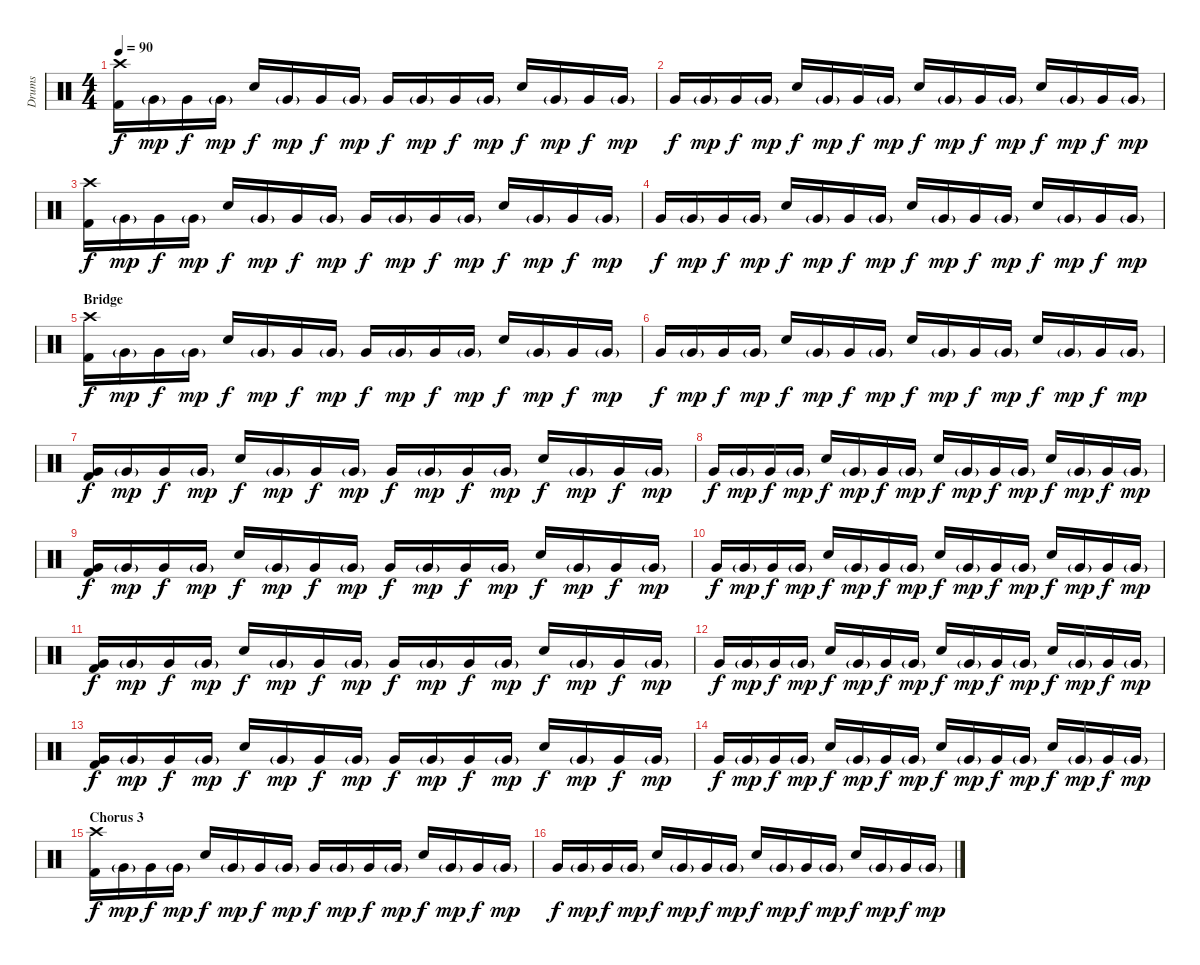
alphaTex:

\track ("Drums" "Drums") {instrument percussion}
\staff {score}
\articulation defaults
\ts (4 4)
\tempo 90
\clef neutral
\ks c
("Crash high (hit)" "Kick (hit) 2").16{dy f} "Very Low Tom (hit)"{g}.16{dy mp} "Very Low Tom (hit)".16{dy f} "Very Low Tom (hit)"{g}.16{dy mp} "Snare (hit) 2".16{dy f} "Very Low Tom (hit)"{g}.16{dy mp} "Very Low Tom (hit)".16{dy f} "Very Low Tom (hit)"{g}.16{dy mp} "Very Low Tom (hit)".16{dy f} "Very Low Tom (hit)"{g}.16{dy mp} "Very Low Tom (hit)".16{dy f} "Very Low Tom (hit)"{g}.16{dy mp} "Snare (hit) 2".16{dy f} "Very Low Tom (hit)"{g}.16{dy mp} "Very Low Tom (hit)".16{dy f} "Very Low Tom (hit)"{g}.16{dy mp} |
"Very Low Tom (hit)".16{dy f} "Very Low Tom (hit)"{g}.16{dy mp} "Very Low Tom (hit)".16{dy f} "Very Low Tom (hit)"{g}.16{dy mp} "Snare (hit) 2".16{dy f} "Very Low Tom (hit)"{g}.16{dy mp} "Very Low Tom (hit)".16{dy f} "Very Low Tom (hit)"{g}.16{dy mp} "Snare (hit) 2".16{dy f} "Very Low Tom (hit)"{g}.16{dy mp} "Very Low Tom (hit)".16{dy f} "Very Low Tom (hit)"{g}.16{dy mp} "Snare (hit) 2".16{dy f} "Very Low Tom (hit)"{g}.16{dy mp} "Very Low Tom (hit)".16{dy f} "Very Low Tom (hit)"{g}.16{dy mp} |
("Crash high (hit)" "Kick (hit) 2").16{dy f} "Very Low Tom (hit)"{g}.16{dy mp} "Very Low Tom (hit)".16{dy f} "Very Low Tom (hit)"{g}.16{dy mp} "Snare (hit) 2".16{dy f} "Very Low Tom (hit)"{g}.16{dy mp} "Very Low Tom (hit)".16{dy f} "Very Low Tom (hit)"{g}.16{dy mp} "Very Low Tom (hit)".16{dy f} "Very Low Tom (hit)"{g}.16{dy mp} "Very Low Tom (hit)".16{dy f} "Very Low Tom (hit)"{g}.16{dy mp} "Snare (hit) 2".16{dy f} "Very Low Tom (hit)"{g}.16{dy mp} "Very Low Tom (hit)".16{dy f} "Very Low Tom (hit)"{g}.16{dy mp} |
"Very Low Tom (hit)".16{dy f} "Very Low Tom (hit)"{g}.16{dy mp} "Very Low Tom (hit)".16{dy f} "Very Low Tom (hit)"{g}.16{dy mp} "Snare (hit) 2".16{dy f} "Very Low Tom (hit)"{g}.16{dy mp} "Very Low Tom (hit)".16{dy f} "Very Low Tom (hit)"{g}.16{dy mp} "Snare (hit) 2".16{dy f} "Very Low Tom (hit)"{g}.16{dy mp} "Very Low Tom (hit)".16{dy f} "Very Low Tom (hit)"{g}.16{dy mp} "Snare (hit) 2".16{dy f} "Very Low Tom (hit)"{g}.16{dy mp} "Very Low Tom (hit)".16{dy f} "Very Low Tom (hit)"{g}.16{dy mp} |
\section ("" "Bridge")
("Crash high (hit)" "Kick (hit) 2").16{dy f} "Very Low Tom (hit)"{g}.16{dy mp} "Very Low Tom (hit)".16{dy f} "Very Low Tom (hit)"{g}.16{dy mp} "Snare (hit) 2".16{dy f} "Very Low Tom (hit)"{g}.16{dy mp} "Very Low Tom (hit)".16{dy f} "Very Low Tom (hit)"{g}.16{dy mp} "Very Low Tom (hit)".16{dy f} "Very Low Tom (hit)"{g}.16{dy mp} "Very Low Tom (hit)".16{dy f} "Very Low Tom (hit)"{g}.16{dy mp} "Snare (hit) 2".16{dy f} "Very Low Tom (hit)"{g}.16{dy mp} "Very Low Tom (hit)".16{dy f} "Very Low Tom (hit)"{g}.16{dy mp} |
"Very Low Tom (hit)".16{dy f} "Very Low Tom (hit)"{g}.16{dy mp} "Very Low Tom (hit)".16{dy f} "Very Low Tom (hit)"{g}.16{dy mp} "Snare (hit) 2".16{dy f} "Very Low Tom (hit)"{g}.16{dy mp} "Very Low Tom (hit)".16{dy f} "Very Low Tom (hit)"{g}.16{dy mp} "Snare (hit) 2".16{dy f} "Very Low Tom (hit)"{g}.16{dy mp} "Very Low Tom (hit)".16{dy f} "Very Low Tom (hit)"{g}.16{dy mp} "Snare (hit) 2".16{dy f} "Very Low Tom (hit)"{g}.16{dy mp} "Very Low Tom (hit)".16{dy f} "Very Low Tom (hit)"{g}.16{dy mp} |
("Very Low Tom (hit)" "Kick (hit) 2").16{dy f} "Very Low Tom (hit)"{g}.16{dy mp} "Very Low Tom (hit)".16{dy f} "Very Low Tom (hit)"{g}.16{dy mp} "Snare (hit) 2".16{dy f} "Very Low Tom (hit)"{g}.16{dy mp} "Very Low Tom (hit)".16{dy f} "Very Low Tom (hit)"{g}.16{dy mp} "Very Low Tom (hit)".16{dy f} "Very Low Tom (hit)"{g}.16{dy mp} "Very Low Tom (hit)".16{dy f} "Very Low Tom (hit)"{g}.16{dy mp} "Snare (hit) 2".16{dy f} "Very Low Tom (hit)"{g}.16{dy mp} "Very Low Tom (hit)".16{dy f} "Very Low Tom (hit)"{g}.16{dy mp} |
"Very Low Tom (hit)".16{dy f} "Very Low Tom (hit)"{g}.16{dy mp} "Very Low Tom (hit)".16{dy f} "Very Low Tom (hit)"{g}.16{dy mp} "Snare (hit) 2".16{dy f} "Very Low Tom (hit)"{g}.16{dy mp} "Very Low Tom (hit)".16{dy f} "Very Low Tom (hit)"{g}.16{dy mp} "Snare (hit) 2".16{dy f} "Very Low Tom (hit)"{g}.16{dy mp} "Very Low Tom (hit)".16{dy f} "Very Low Tom (hit)"{g}.16{dy mp} "Snare (hit) 2".16{dy f} "Very Low Tom (hit)"{g}.16{dy mp} "Very Low Tom (hit)".16{dy f} "Very Low Tom (hit)"{g}.16{dy mp} |
("Very Low Tom (hit)" "Kick (hit) 2").16{dy f} "Very Low Tom (hit)"{g}.16{dy mp} "Very Low Tom (hit)".16{dy f} "Very Low Tom (hit)"{g}.16{dy mp} "Snare (hit) 2".16{dy f} "Very Low Tom (hit)"{g}.16{dy mp} "Very Low Tom (hit)".16{dy f} "Very Low Tom (hit)"{g}.16{dy mp} "Very Low Tom (hit)".16{dy f} "Very Low Tom (hit)"{g}.16{dy mp} "Very Low Tom (hit)".16{dy f} "Very Low Tom (hit)"{g}.16{dy mp} "Snare (hit) 2".16{dy f} "Very Low Tom (hit)"{g}.16{dy mp} "Very Low Tom (hit)".16{dy f} "Very Low Tom (hit)"{g}.16{dy mp} |
"Very Low Tom (hit)".16{dy f} "Very Low Tom (hit)"{g}.16{dy mp} "Very Low Tom (hit)".16{dy f} "Very Low Tom (hit)"{g}.16{dy mp} "Snare (hit) 2".16{dy f} "Very Low Tom (hit)"{g}.16{dy mp} "Very Low Tom (hit)".16{dy f} "Very Low Tom (hit)"{g}.16{dy mp} "Snare (hit) 2".16{dy f} "Very Low Tom (hit)"{g}.16{dy mp} "Very Low Tom (hit)".16{dy f} "Very Low Tom (hit)"{g}.16{dy mp} "Snare (hit) 2".16{dy f} "Very Low Tom (hit)"{g}.16{dy mp} "Very Low Tom (hit)".16{dy f} "Very Low Tom (hit)"{g}.16{dy mp} |
("Very Low Tom (hit)" "Kick (hit) 2").16{dy f} "Very Low Tom (hit)"{g}.16{dy mp} "Very Low Tom (hit)".16{dy f} "Very Low Tom (hit)"{g}.16{dy mp} "Snare (hit) 2".16{dy f} "Very Low Tom (hit)"{g}.16{dy mp} "Very Low Tom (hit)".16{dy f} "Very Low Tom (hit)"{g}.16{dy mp} "Very Low Tom (hit)".16{dy f} "Very Low Tom (hit)"{g}.16{dy mp} "Very Low Tom (hit)".16{dy f} "Very Low Tom (hit)"{g}.16{dy mp} "Snare (hit) 2".16{dy f} "Very Low Tom (hit)"{g}.16{dy mp} "Very Low Tom (hit)".16{dy f} "Very Low Tom (hit)"{g}.16{dy mp} |
"Very Low Tom (hit)".16{dy f} "Very Low Tom (hit)"{g}.16{dy mp} "Very Low Tom (hit)".16{dy f} "Very Low Tom (hit)"{g}.16{dy mp} "Snare (hit) 2".16{dy f} "Very Low Tom (hit)"{g}.16{dy mp} "Very Low Tom (hit)".16{dy f} "Very Low Tom (hit)"{g}.16{dy mp} "Snare (hit) 2".16{dy f} "Very Low Tom (hit)"{g}.16{dy mp} "Very Low Tom (hit)".16{dy f} "Very Low Tom (hit)"{g}.16{dy mp} "Snare (hit) 2".16{dy f} "Very Low Tom (hit)"{g}.16{dy mp} "Very Low Tom (hit)".16{dy f} "Very Low Tom (hit)"{g}.16{dy mp} |
("Very Low Tom (hit)" "Kick (hit) 2").16{dy f} "Very Low Tom (hit)"{g}.16{dy mp} "Very Low Tom (hit)".16{dy f} "Very Low Tom (hit)"{g}.16{dy mp} "Snare (hit) 2".16{dy f} "Very Low Tom (hit)"{g}.16{dy mp} "Very Low Tom (hit)".16{dy f} "Very Low Tom (hit)"{g}.16{dy mp} "Very Low Tom (hit)".16{dy f} "Very Low Tom (hit)"{g}.16{dy mp} "Very Low Tom (hit)".16{dy f} "Very Low Tom (hit)"{g}.16{dy mp} "Snare (hit) 2".16{dy f} "Very Low Tom (hit)"{g}.16{dy mp} "Very Low Tom (hit)".16{dy f} "Very Low Tom (hit)"{g}.16{dy mp} |
"Very Low Tom (hit)".16{dy f} "Very Low Tom (hit)"{g}.16{dy mp} "Very Low Tom (hit)".16{dy f} "Very Low Tom (hit)"{g}.16{dy mp} "Snare (hit) 2".16{dy f} "Very Low Tom (hit)"{g}.16{dy mp} "Very Low Tom (hit)".16{dy f} "Very Low Tom (hit)"{g}.16{dy mp} "Snare (hit) 2".16{dy f} "Very Low Tom (hit)"{g}.16{dy mp} "Very Low Tom (hit)".16{dy f} "Very Low Tom (hit)"{g}.16{dy mp} "Snare (hit) 2".16{dy f} "Very Low Tom (hit)"{g}.16{dy mp} "Very Low Tom (hit)".16{dy f} "Very Low Tom (hit)"{g}.16{dy mp} |
\section ("" "Chorus 3")
("Crash high (hit)" "Kick (hit) 2").16{dy f} "Very Low Tom (hit)"{g}.16{dy mp} "Very Low Tom (hit)".16{dy f} "Very Low Tom (hit)"{g}.16{dy mp} "Snare (hit) 2".16{dy f} "Very Low Tom (hit)"{g}.16{dy mp} "Very Low Tom (hit)".16{dy f} "Very Low Tom (hit)"{g}.16{dy mp} "Very Low Tom (hit)".16{dy f} "Very Low Tom (hit)"{g}.16{dy mp} "Very Low Tom (hit)".16{dy f} "Very Low Tom (hit)"{g}.16{dy mp} "Snare (hit) 2".16{dy f} "Very Low Tom (hit)"{g}.16{dy mp} "Very Low Tom (hit)".16{dy f} "Very Low Tom (hit)"{g}.16{dy mp} |
"Very Low Tom (hit)".16{dy f} "Very Low Tom (hit)"{g}.16{dy mp} "Very Low Tom (hit)".16{dy f} "Very Low Tom (hit)"{g}.16{dy mp} "Snare (hit) 2".16{dy f} "Very Low Tom (hit)"{g}.16{dy mp} "Very Low Tom (hit)".16{dy f} "Very Low Tom (hit)"{g}.16{dy mp} "Snare (hit) 2".16{dy f} "Very Low Tom (hit)"{g}.16{dy mp} "Very Low Tom (hit)".16{dy f} "Very Low Tom (hit)"{g}.16{dy mp} "Snare (hit) 2".16{dy f} "Very Low Tom (hit)"{g}.16{dy mp} "Very Low Tom (hit)".16{dy f} "Very Low Tom (hit)"{g}.16{dy mp}
